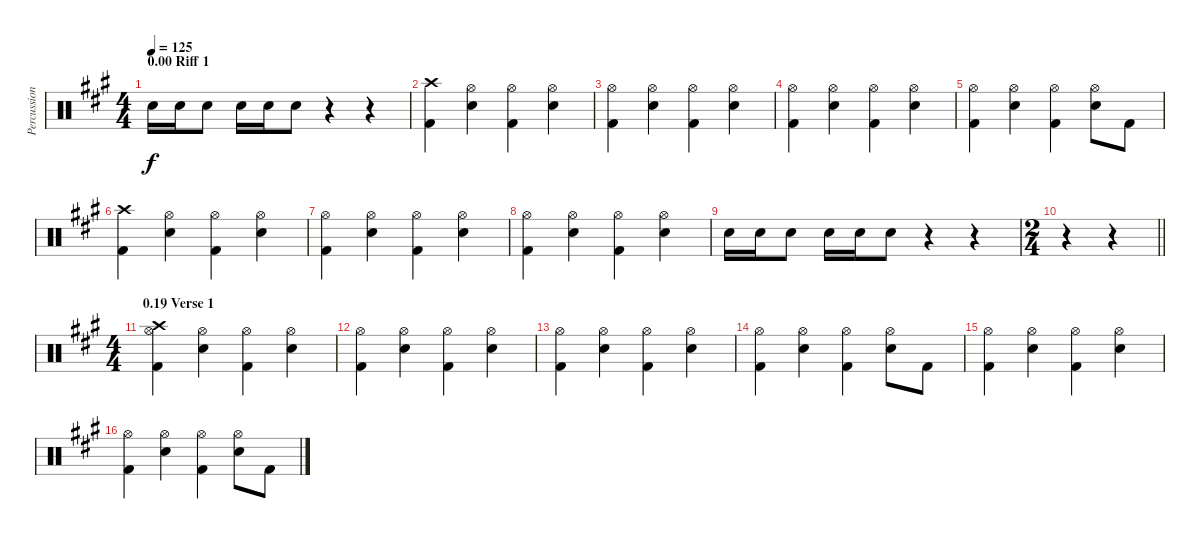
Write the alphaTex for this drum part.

\track ("Percussion" "Percussion") {instrument percussion}
\staff {score}
\articulation defaults
\ts (4 4)
\section ("" "0.00 Riff 1")
\tempo 125
\clef neutral
\ks f#minor "Electric Snare (hit)".16{dy f} "Electric Snare (hit)".16 "Electric Snare (hit)".8 "Electric Snare (hit)".16 "Electric Snare (hit)".16 "Electric Snare (hit)".8
r.4 r.4 |
("Crash high (hit)" "Kick (hit) 2").4 ("Hi-Hat (open)" "Electric Snare (hit)").4 ("Hi-Hat (open)" "Kick (hit) 2").4 ("Hi-Hat (open)" "Electric Snare (hit)").4 |
("Hi-Hat (open)" "Kick (hit) 2").4 ("Hi-Hat (open)" "Electric Snare (hit)").4 ("Hi-Hat (open)" "Kick (hit) 2").4 ("Hi-Hat (open)" "Electric Snare (hit)").4 |
("Hi-Hat (open)" "Kick (hit) 2").4 ("Hi-Hat (open)" "Electric Snare (hit)").4 ("Hi-Hat (open)" "Kick (hit) 2").4 ("Hi-Hat (open)" "Electric Snare (hit)").4 |
("Hi-Hat (open)" "Kick (hit) 2").4 ("Hi-Hat (open)" "Electric Snare (hit)").4 ("Hi-Hat (open)" "Kick (hit) 2").4 ("Hi-Hat (open)" "Electric Snare (hit)").8 "Kick (hit) 2".8 |
("Crash high (hit)" "Kick (hit) 2").4 ("Hi-Hat (open)" "Electric Snare (hit)").4 ("Hi-Hat (open)" "Kick (hit) 2").4 ("Hi-Hat (open)" "Electric Snare (hit)").4 |
("Hi-Hat (open)" "Kick (hit) 2").4 ("Hi-Hat (open)" "Electric Snare (hit)").4 ("Hi-Hat (open)" "Kick (hit) 2").4 ("Hi-Hat (open)" "Electric Snare (hit)").4 |
("Hi-Hat (open)" "Kick (hit) 2").4 ("Hi-Hat (open)" "Electric Snare (hit)").4 ("Hi-Hat (open)" "Kick (hit) 2").4 ("Hi-Hat (open)" "Electric Snare (hit)").4 |
"Electric Snare (hit)".16 "Electric Snare (hit)".16 "Electric Snare (hit)".8 "Electric Snare (hit)".16 "Electric Snare (hit)".16 "Electric Snare (hit)".8 r.4 r.4 |
\ts (2 4)
\barLineRight lightlight
r.4 r.4 |
\ts (4 4)
\section ("" "0.19 Verse 1")
("Crash high (hit)" "Hi-Hat (open)" "Kick (hit) 2").4 ("Hi-Hat (open)" "Electric Snare (hit)").4 ("Hi-Hat (open)" "Kick (hit) 2").4 ("Hi-Hat (open)" "Electric Snare (hit)").4 |
("Hi-Hat (open)" "Kick (hit) 2").4 ("Hi-Hat (open)" "Electric Snare (hit)").4 ("Hi-Hat (open)" "Kick (hit) 2").4 ("Hi-Hat (open)" "Electric Snare (hit)").4 |
("Hi-Hat (open)" "Kick (hit) 2").4 ("Hi-Hat (open)" "Electric Snare (hit)").4 ("Hi-Hat (open)" "Kick (hit) 2").4 ("Hi-Hat (open)" "Electric Snare (hit)").4 |
("Hi-Hat (open)" "Kick (hit) 2").4 ("Hi-Hat (open)" "Electric Snare (hit)").4 ("Hi-Hat (open)" "Kick (hit) 2").4 ("Hi-Hat (open)" "Electric Snare (hit)").8 "Kick (hit) 2".8 |
("Hi-Hat (open)" "Kick (hit) 2").4 ("Hi-Hat (open)" "Electric Snare (hit)").4 ("Hi-Hat (open)" "Kick (hit) 2").4 ("Hi-Hat (open)" "Electric Snare (hit)").4 |
("Hi-Hat (open)" "Kick (hit) 2").4 ("Hi-Hat (open)" "Electric Snare (hit)").4 ("Hi-Hat (open)" "Kick (hit) 2").4 ("Hi-Hat (open)" "Electric Snare (hit)").8 "Kick (hit) 2".8
